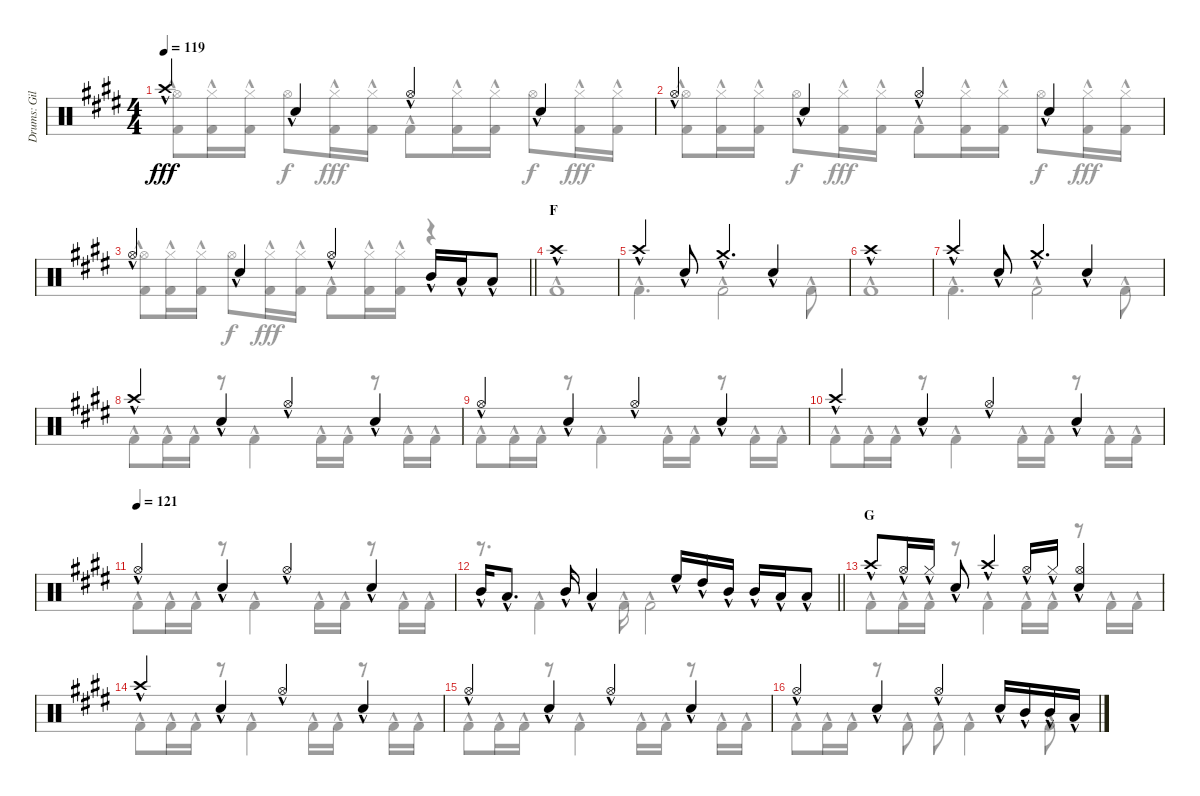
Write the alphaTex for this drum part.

\track ("Drums: Gil" "Drums: Gil") {instrument percussion}
\staff {score}
\articulation defaults
\voice
\ts (4 4)
\tempo 119
\clef neutral
\ks e "Crash high (hit)"{hac}.4{dy fff} "Snare (hit) 2"{hac}.4 "Hi-Hat (open)"{hac}.4 "Snare (hit) 2"{hac}.4
|
"Hi-Hat (open)"{hac}.4 "Snare (hit) 2"{hac}.4 "Hi-Hat (open)"{hac}.4 "Snare (hit) 2"{hac}.4 |
\barLineRight lightlight "Hi-Hat (open)"{hac}.4 "Snare (hit) 2"{hac}.4 "Hi-Hat (open)"{hac}.4 "Mid Tom (hit)"{hac}.16 "Low Tom (hit)"{hac}.16 "Low Tom (hit)"{hac}.8
|
\section ("" "F")
"Crash high (hit)"{hac}.1 |
"Crash high (hit)"{hac}.4 "Snare (hit) 2"{hac}.8 "Crash medium (hit)"{hac}.4{d} "Snare (hit) 2"{hac}.4 |
"Crash high (hit)"{hac}.1 |
"Crash high (hit)"{hac}.4 "Snare (hit) 2"{hac}.8 "Crash medium (hit)"{hac}.4{d} "Snare (hit) 2"{hac}.4 |
"Crash high (hit)"{hac}.4 "Snare (hit) 2"{hac}.4 "Hi-Hat (open)"{hac}.4 "Snare (hit) 2"{hac}.4 |
"Hi-Hat (open)"{hac}.4 "Snare (hit) 2"{hac}.4 "Hi-Hat (open)"{hac}.4 "Snare (hit) 2"{hac}.4 |
"Crash high (hit)"{hac}.4 "Snare (hit) 2"{hac}.4 "Hi-Hat (open)"{hac}.4 "Snare (hit) 2"{hac}.4 |
\tempo (121)
"Hi-Hat (open)"{hac}.4 "Snare (hit) 2"{hac}.4 "Hi-Hat (open)"{hac}.4 "Snare (hit) 2"{hac}.4 |
\barLineRight lightlight "Mid Tom (hit)"{hac}.16 "Low Tom (hit)"{hac}.8{d} "Mid Tom (hit)"{hac}.16 "Low Tom (hit)"{hac}.4 "High Floor Tom (hit)"{hac}.16 "High Tom (hit)"{hac}.16 "Mid Tom (hit)"{hac}.16 "Mid Tom (hit)"{hac}.16 "Low Tom (hit)"{hac}.16 "Low Tom (hit)"{hac}.8
|
\section ("" "G")
"Crash high (hit)"{hac}.8 "Hi-Hat (open)"{hac}.16 "Hi-Hat (closed)"{hac}.16 "Snare (hit) 2"{hac}.8 "Crash high (hit)"{hac}.4 "Hi-Hat (open)"{hac}.16 "Hi-Hat (closed)"{hac}.16 ("Hi-Hat (open)"{hac} "Snare (hit) 2"{hac}).4 |
"Crash high (hit)"{hac}.4 "Snare (hit) 2"{hac}.4 "Hi-Hat (open)"{hac}.4 "Snare (hit) 2"{hac}.4 |
"Hi-Hat (open)"{hac}.4 "Snare (hit) 2"{hac}.4 "Hi-Hat (open)"{hac}.4 "Snare (hit) 2"{hac}.4 |
"Hi-Hat (open)"{hac}.4 "Snare (hit) 2"{hac}.4 "Hi-Hat (open)"{hac}.4 "Snare (hit) 2"{hac}.16 "Mid Tom (hit)"{hac}.16 "Mid Tom (hit)"{hac}.16 "Low Tom (hit)"{hac}.16
\voice
\clef neutral
\ottava regular
\simile none
\ks e
("Hi-Hat (open)" "Kick (hit) 2"{hac}).8{dy fff} ("Hi-Hat (closed)" "Kick (hit) 2"{hac}).16 ("Hi-Hat (closed)" "Kick (hit) 2"{hac}).16 "Hi-Hat (open)".8{dy f} ("Hi-Hat (closed)" "Kick (hit) 2"{hac}).16{dy fff} ("Hi-Hat (closed)" "Kick (hit) 2"{hac}).16 "Kick (hit) 2"{hac}.8 ("Hi-Hat (closed)" "Kick (hit) 2"{hac}).16 ("Hi-Hat (closed)" "Kick (hit) 2"{hac}).16 "Hi-Hat (open)".8{dy f} ("Hi-Hat (closed)" "Kick (hit) 2"{hac}).16{dy fff} ("Hi-Hat (closed)" "Kick (hit) 2"{hac}).16 |
("Hi-Hat (open)" "Kick (hit) 2"{hac}).8 ("Hi-Hat (closed)" "Kick (hit) 2"{hac}).16 ("Hi-Hat (closed)" "Kick (hit) 2"{hac}).16 "Hi-Hat (open)".8{dy f} ("Hi-Hat (closed)" "Kick (hit) 2"{hac}).16{dy fff} ("Hi-Hat (closed)" "Kick (hit) 2"{hac}).16 "Kick (hit) 2"{hac}.8 ("Hi-Hat (closed)" "Kick (hit) 2"{hac}).16 ("Hi-Hat (closed)" "Kick (hit) 2"{hac}).16 "Hi-Hat (open)".8{dy f} ("Hi-Hat (closed)" "Kick (hit) 2"{hac}).16{dy fff} ("Hi-Hat (closed)" "Kick (hit) 2"{hac}).16 |
\barLineRight lightlight
("Hi-Hat (open)" "Kick (hit) 2"{hac}).8 ("Hi-Hat (closed)" "Kick (hit) 2"{hac}).16 ("Hi-Hat (closed)" "Kick (hit) 2"{hac}).16 "Hi-Hat (open)".8{dy f} ("Hi-Hat (closed)" "Kick (hit) 2"{hac}).16{dy fff} ("Hi-Hat (closed)" "Kick (hit) 2"{hac}).16 "Kick (hit) 2"{hac}.8 ("Hi-Hat (closed)" "Kick (hit) 2"{hac}).16 ("Hi-Hat (closed)" "Kick (hit) 2"{hac}).16 r.4 |
"Kick (hit) 2"{hac}.1 |
"Kick (hit) 2"{hac}.4{d} "Kick (hit) 2"{hac}.2 "Kick (hit) 2"{hac}.8 |
"Kick (hit) 2"{hac}.1 |
"Kick (hit) 2"{hac}.4{d} "Kick (hit) 2"{hac}.2 "Kick (hit) 2"{hac}.8 |
"Kick (hit) 2"{hac}.8 "Kick (hit) 2"{hac}.16 "Kick (hit) 2"{hac}.16 r.8 "Kick (hit) 2"{hac}.4 "Kick (hit) 2"{hac}.16 "Kick (hit) 2"{hac}.16 r.8 "Kick (hit) 2"{hac}.16 "Kick (hit) 2"{hac}.16 |
"Kick (hit) 2"{hac}.8 "Kick (hit) 2"{hac}.16 "Kick (hit) 2"{hac}.16 r.8 "Kick (hit) 2"{hac}.4 "Kick (hit) 2"{hac}.16 "Kick (hit) 2"{hac}.16 r.8 "Kick (hit) 2"{hac}.16 "Kick (hit) 2"{hac}.16 |
"Kick (hit) 2"{hac}.8 "Kick (hit) 2"{hac}.16 "Kick (hit) 2"{hac}.16 r.8 "Kick (hit) 2"{hac}.4 "Kick (hit) 2"{hac}.16 "Kick (hit) 2"{hac}.16 r.8 "Kick (hit) 2"{hac}.16 "Kick (hit) 2"{hac}.16 |
"Kick (hit) 2"{hac}.8 "Kick (hit) 2"{hac}.16 "Kick (hit) 2"{hac}.16 r.8 "Kick (hit) 2"{hac}.4 "Kick (hit) 2"{hac}.16 "Kick (hit) 2"{hac}.16 r.8 "Kick (hit) 2"{hac}.16 "Kick (hit) 2"{hac}.16 |
\barLineRight lightlight
r.8{d} "Kick (hit) 2"{hac}.4 "Kick (hit) 2"{hac}.16 "Kick (hit) 2"{hac}.2 |
"Kick (hit) 2"{hac}.8 "Kick (hit) 2"{hac}.16 "Kick (hit) 2"{hac}.16 r.8 "Kick (hit) 2"{hac}.4 "Kick (hit) 2"{hac}.16 "Kick (hit) 2"{hac}.16 r.8 "Kick (hit) 2"{hac}.16 "Kick (hit) 2"{hac}.16 |
"Kick (hit) 2"{hac}.8 "Kick (hit) 2"{hac}.16 "Kick (hit) 2"{hac}.16 r.8 "Kick (hit) 2"{hac}.4 "Kick (hit) 2"{hac}.16 "Kick (hit) 2"{hac}.16 r.8 "Kick (hit) 2"{hac}.16 "Kick (hit) 2"{hac}.16 |
"Kick (hit) 2"{hac}.8 "Kick (hit) 2"{hac}.16 "Kick (hit) 2"{hac}.16 r.8 "Kick (hit) 2"{hac}.4 "Kick (hit) 2"{hac}.16 "Kick (hit) 2"{hac}.16 r.8 "Kick (hit) 2"{hac}.16 "Kick (hit) 2"{hac}.16 |
"Kick (hit) 2"{hac}.8 "Kick (hit) 2"{hac}.16 "Kick (hit) 2"{hac}.16 r.8 "Kick (hit) 2"{hac}.8 "Kick (hit) 2"{hac}.8 "Kick (hit) 2"{hac}.4 "Kick (hit) 2"{hac}.8
